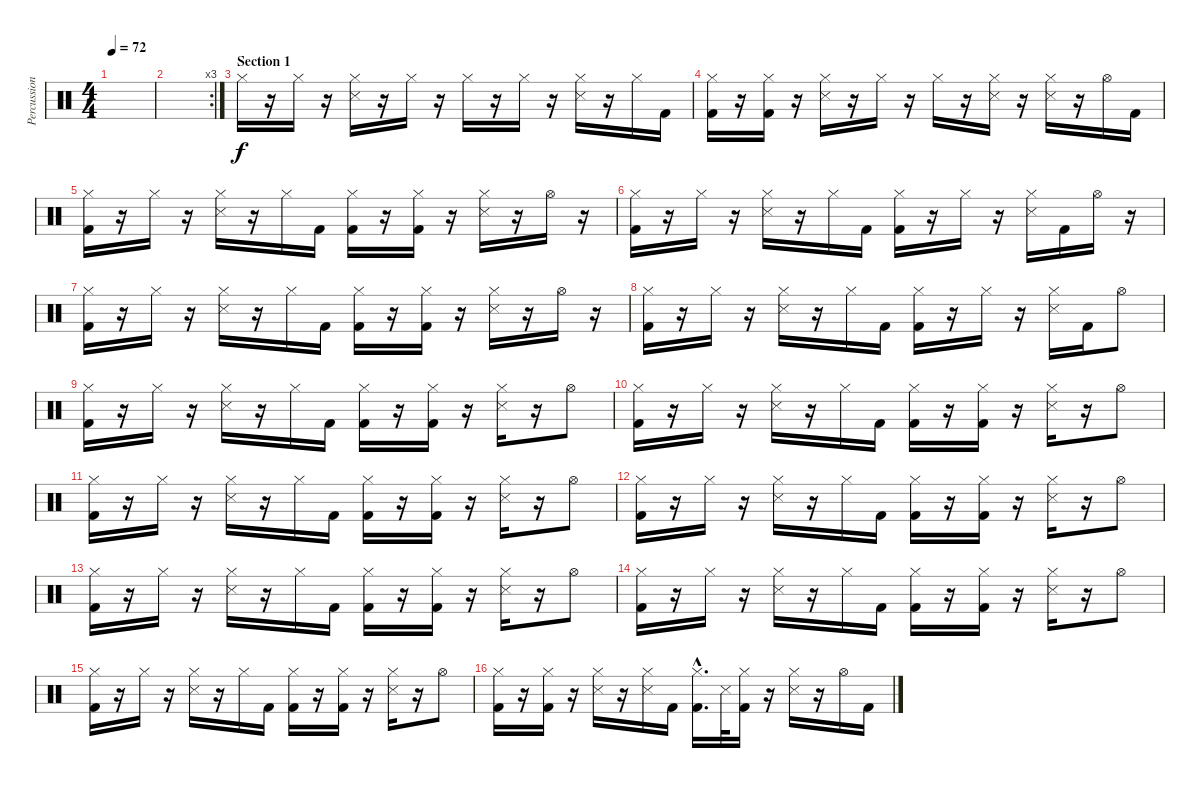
\track ("Percussions" "Percussion") {instrument percussion}
\staff {score}
\articulation defaults
\ts (4 4)
\tempo 72
\clef neutral
\ks c
|
\rc 3
|
\section ("" "Section 1")
"Hi-Hat (closed)".16 r.16 "Hi-Hat (closed)".16 r.16 ("Snare (side stick) 3" "Hi-Hat (closed)").16 r.16 "Hi-Hat (closed)".16 r.16 "Hi-Hat (closed)".16 r.16 "Hi-Hat (closed)".16 r.16 ("Snare (side stick) 3" "Hi-Hat (closed)").16 r.16 "Hi-Hat (closed)".16 "Kick (hit) 2".16 |
("Kick (hit) 2" "Hi-Hat (closed)").16 r.16 ("Kick (hit) 2" "Hi-Hat (closed)").16 r.16 ("Snare (side stick) 3" "Hi-Hat (closed)").16 r.16 "Hi-Hat (closed)".16 r.16 "Hi-Hat (closed)".16 r.16 ("Snare (side stick) 3" "Hi-Hat (closed)").16 r.16 ("Snare (side stick) 3" "Hi-Hat (closed)").16 r.16 "Hi-Hat (open)".16 "Kick (hit) 2".16 |
("Kick (hit) 2" "Hi-Hat (closed)").16 r.16 "Hi-Hat (closed)".16 r.16 ("Snare (side stick) 3" "Hi-Hat (closed)").16 r.16 "Hi-Hat (closed)".16 "Kick (hit) 2".16 ("Kick (hit) 2" "Hi-Hat (closed)").16 r.16 ("Kick (hit) 2" "Hi-Hat (closed)").16 r.16 ("Snare (side stick) 3" "Hi-Hat (closed)").16 r.16 "Hi-Hat (open)".16 r.16 |
("Kick (hit) 2" "Hi-Hat (closed)").16 r.16 "Hi-Hat (closed)".16 r.16 ("Snare (side stick) 3" "Hi-Hat (closed)").16 r.16 "Hi-Hat (closed)".16 "Kick (hit) 2".16 ("Kick (hit) 2" "Hi-Hat (closed)").16 r.16 "Hi-Hat (closed)".16 r.16 ("Snare (side stick) 3" "Hi-Hat (closed)").16 "Kick (hit) 2".16 "Hi-Hat (open)".16 r.16 |
("Kick (hit) 2" "Hi-Hat (closed)").16 r.16 "Hi-Hat (closed)".16 r.16 ("Snare (side stick) 3" "Hi-Hat (closed)").16 r.16 "Hi-Hat (closed)".16 "Kick (hit) 2".16 ("Kick (hit) 2" "Hi-Hat (closed)").16 r.16 ("Kick (hit) 2" "Hi-Hat (closed)").16 r.16 ("Snare (side stick) 3" "Hi-Hat (closed)").16 r.16 "Hi-Hat (open)".16 r.16 |
("Kick (hit) 2" "Hi-Hat (closed)").16 r.16 "Hi-Hat (closed)".16 r.16 ("Snare (side stick) 3" "Hi-Hat (closed)").16 r.16 "Hi-Hat (closed)".16 "Kick (hit) 2".16 ("Kick (hit) 2" "Hi-Hat (closed)").16 r.16 "Hi-Hat (closed)".16 r.16 ("Snare (side stick) 3" "Hi-Hat (closed)").16 "Kick (hit) 2".16 "Hi-Hat (open)".8 |
("Kick (hit) 2" "Hi-Hat (closed)").16 r.16 "Hi-Hat (closed)".16 r.16 ("Snare (side stick) 3" "Hi-Hat (closed)").16 r.16 "Hi-Hat (closed)".16 "Kick (hit) 2".16 ("Kick (hit) 2" "Hi-Hat (closed)").16 r.16 ("Kick (hit) 2" "Hi-Hat (closed)").16 r.16 ("Snare (side stick) 3" "Hi-Hat (closed)").16 r.16 "Hi-Hat (open)".8 |
("Kick (hit) 2" "Hi-Hat (closed)").16 r.16 "Hi-Hat (closed)".16 r.16 ("Snare (side stick) 3" "Hi-Hat (closed)").16 r.16 "Hi-Hat (closed)".16 "Kick (hit) 2".16 ("Kick (hit) 2" "Hi-Hat (closed)").16 r.16 ("Kick (hit) 2" "Hi-Hat (closed)").16 r.16 ("Snare (side stick) 3" "Hi-Hat (closed)").16 r.16 "Hi-Hat (open)".8 |
("Kick (hit) 2" "Hi-Hat (closed)").16 r.16 "Hi-Hat (closed)".16 r.16 ("Snare (side stick) 3" "Hi-Hat (closed)").16 r.16 "Hi-Hat (closed)".16 "Kick (hit) 2".16 ("Kick (hit) 2" "Hi-Hat (closed)").16 r.16 ("Kick (hit) 2" "Hi-Hat (closed)").16 r.16 ("Snare (side stick) 3" "Hi-Hat (closed)").16 r.16 "Hi-Hat (open)".8 |
("Kick (hit) 2" "Hi-Hat (closed)").16 r.16 "Hi-Hat (closed)".16 r.16 ("Snare (side stick) 3" "Hi-Hat (closed)").16 r.16 "Hi-Hat (closed)".16 "Kick (hit) 2".16 ("Kick (hit) 2" "Hi-Hat (closed)").16 r.16 ("Kick (hit) 2" "Hi-Hat (closed)").16 r.16 ("Snare (side stick) 3" "Hi-Hat (closed)").16 r.16 "Hi-Hat (open)".8 |
("Kick (hit) 2" "Hi-Hat (closed)").16 r.16 "Hi-Hat (closed)".16 r.16 ("Snare (side stick) 3" "Hi-Hat (closed)").16 r.16 "Hi-Hat (closed)".16 "Kick (hit) 2".16 ("Kick (hit) 2" "Hi-Hat (closed)").16 r.16 ("Kick (hit) 2" "Hi-Hat (closed)").16 r.16 ("Snare (side stick) 3" "Hi-Hat (closed)").16 r.16 "Hi-Hat (open)".8 |
("Kick (hit) 2" "Hi-Hat (closed)").16 r.16 "Hi-Hat (closed)".16 r.16 ("Snare (side stick) 3" "Hi-Hat (closed)").16 r.16 "Hi-Hat (closed)".16 "Kick (hit) 2".16 ("Kick (hit) 2" "Hi-Hat (closed)").16 r.16 ("Kick (hit) 2" "Hi-Hat (closed)").16 r.16 ("Snare (side stick) 3" "Hi-Hat (closed)").16 r.16 "Hi-Hat (open)".8 |
("Kick (hit) 2" "Hi-Hat (closed)").16 r.16 "Hi-Hat (closed)".16 r.16 ("Snare (side stick) 3" "Hi-Hat (closed)").16 r.16 "Hi-Hat (closed)".16 "Kick (hit) 2".16 ("Kick (hit) 2" "Hi-Hat (closed)").16 r.16 ("Kick (hit) 2" "Hi-Hat (closed)").16 r.16 ("Snare (side stick) 3" "Hi-Hat (closed)").16 r.16 "Hi-Hat (open)".8 |
("Kick (hit) 2" "Hi-Hat (closed)").16 r.16 ("Kick (hit) 2" "Hi-Hat (closed)").16 r.16 ("Snare (side stick) 3" "Hi-Hat (closed)").16 r.16 ("Snare (side stick) 3" "Hi-Hat (closed)").16 "Kick (hit) 2".16 ("Kick (hit) 2"{hac} "Hi-Hat (closed)"{hac}).16{d} "Snare (side stick) 3".32 ("Kick (hit) 2" "Hi-Hat (closed)").16 r.16 ("Snare (side stick) 3" "Hi-Hat (closed)").16 r.16 "Hi-Hat (open)".16 "Kick (hit) 2".16
